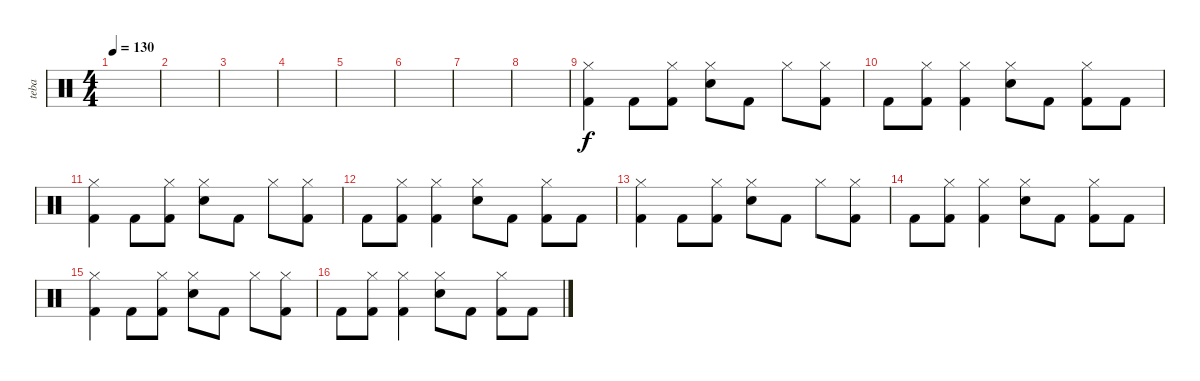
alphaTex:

\track ("teba" "teba") {instrument percussion}
\staff {score}
\articulation defaults
\ts (4 4)
\tempo 130
\clef neutral
\ks c
|
|
|
|
|
|
|
|
("Kick (hit) 2" "Hi-Hat (closed)").4 "Kick (hit) 2".8 ("Kick (hit) 2" "Hi-Hat (closed)").8 ("Electric Snare (hit)" "Hi-Hat (closed)").8 "Kick (hit) 2".8 "Hi-Hat (closed)".8 ("Kick (hit) 2" "Hi-Hat (closed)").8 |
"Kick (hit) 2".8 ("Kick (hit) 2" "Hi-Hat (closed)").8 ("Kick (hit) 2" "Hi-Hat (closed)").4 ("Electric Snare (hit)" "Hi-Hat (closed)").8 "Kick (hit) 2".8 ("Kick (hit) 2" "Hi-Hat (closed)").8 "Kick (hit) 2".8 |
("Kick (hit) 2" "Hi-Hat (closed)").4 "Kick (hit) 2".8 ("Kick (hit) 2" "Hi-Hat (closed)").8 ("Electric Snare (hit)" "Hi-Hat (closed)").8 "Kick (hit) 2".8 "Hi-Hat (closed)".8 ("Kick (hit) 2" "Hi-Hat (closed)").8 |
"Kick (hit) 2".8 ("Kick (hit) 2" "Hi-Hat (closed)").8 ("Kick (hit) 2" "Hi-Hat (closed)").4 ("Electric Snare (hit)" "Hi-Hat (closed)").8 "Kick (hit) 2".8 ("Kick (hit) 2" "Hi-Hat (closed)").8 "Kick (hit) 2".8 |
("Kick (hit) 2" "Hi-Hat (closed)").4 "Kick (hit) 2".8 ("Kick (hit) 2" "Hi-Hat (closed)").8 ("Electric Snare (hit)" "Hi-Hat (closed)").8 "Kick (hit) 2".8 "Hi-Hat (closed)".8 ("Kick (hit) 2" "Hi-Hat (closed)").8 |
"Kick (hit) 2".8 ("Kick (hit) 2" "Hi-Hat (closed)").8 ("Kick (hit) 2" "Hi-Hat (closed)").4 ("Electric Snare (hit)" "Hi-Hat (closed)").8 "Kick (hit) 2".8 ("Kick (hit) 2" "Hi-Hat (closed)").8 "Kick (hit) 2".8 |
("Kick (hit) 2" "Hi-Hat (closed)").4 "Kick (hit) 2".8 ("Kick (hit) 2" "Hi-Hat (closed)").8 ("Electric Snare (hit)" "Hi-Hat (closed)").8 "Kick (hit) 2".8 "Hi-Hat (closed)".8 ("Kick (hit) 2" "Hi-Hat (closed)").8 |
"Kick (hit) 2".8 ("Kick (hit) 2" "Hi-Hat (closed)").8 ("Kick (hit) 2" "Hi-Hat (closed)").4 ("Electric Snare (hit)" "Hi-Hat (closed)").8 "Kick (hit) 2".8 ("Kick (hit) 2" "Hi-Hat (closed)").8 "Kick (hit) 2".8
